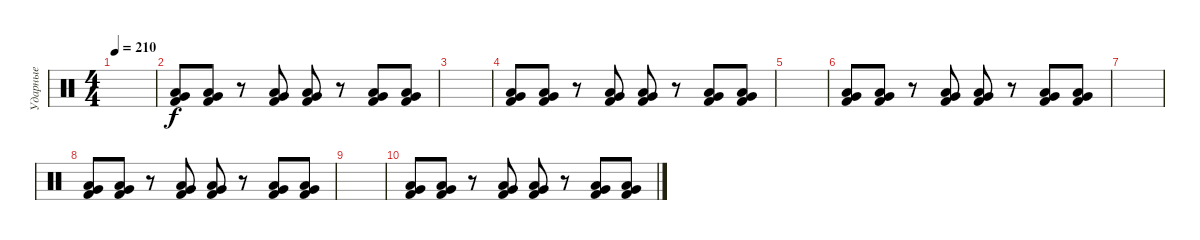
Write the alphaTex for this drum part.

\track ("Ударные" "Ударные") {instrument percussion}
\staff {score}
\articulation defaults
\ts (4 4)
\tempo 210
\clef neutral
\ks c
|
("Very Low Tom (hit)" "Low Floor Tom (hit)" "Kick (hit) 2").8 ("Very Low Tom (hit)" "Low Floor Tom (hit)" "Kick (hit) 2").8 r.8 ("Very Low Tom (hit)" "Low Floor Tom (hit)" "Kick (hit) 2").8 ("Very Low Tom (hit)" "Low Floor Tom (hit)" "Kick (hit) 2").8 r.8 ("Very Low Tom (hit)" "Low Floor Tom (hit)" "Kick (hit) 2").8 ("Very Low Tom (hit)" "Low Floor Tom (hit)" "Kick (hit) 2").8 |
|
("Very Low Tom (hit)" "Low Floor Tom (hit)" "Kick (hit) 2").8 ("Very Low Tom (hit)" "Low Floor Tom (hit)" "Kick (hit) 2").8 r.8 ("Very Low Tom (hit)" "Low Floor Tom (hit)" "Kick (hit) 2").8 ("Very Low Tom (hit)" "Low Floor Tom (hit)" "Kick (hit) 2").8 r.8 ("Very Low Tom (hit)" "Low Floor Tom (hit)" "Kick (hit) 2").8 ("Very Low Tom (hit)" "Low Floor Tom (hit)" "Kick (hit) 2").8 |
|
("Very Low Tom (hit)" "Low Floor Tom (hit)" "Kick (hit) 2").8 ("Very Low Tom (hit)" "Low Floor Tom (hit)" "Kick (hit) 2").8 r.8 ("Very Low Tom (hit)" "Low Floor Tom (hit)" "Kick (hit) 2").8 ("Very Low Tom (hit)" "Low Floor Tom (hit)" "Kick (hit) 2").8 r.8 ("Very Low Tom (hit)" "Low Floor Tom (hit)" "Kick (hit) 2").8 ("Very Low Tom (hit)" "Low Floor Tom (hit)" "Kick (hit) 2").8 |
|
("Very Low Tom (hit)" "Low Floor Tom (hit)" "Kick (hit) 2").8 ("Very Low Tom (hit)" "Low Floor Tom (hit)" "Kick (hit) 2").8 r.8 ("Very Low Tom (hit)" "Low Floor Tom (hit)" "Kick (hit) 2").8 ("Very Low Tom (hit)" "Low Floor Tom (hit)" "Kick (hit) 2").8 r.8 ("Very Low Tom (hit)" "Low Floor Tom (hit)" "Kick (hit) 2").8 ("Very Low Tom (hit)" "Low Floor Tom (hit)" "Kick (hit) 2").8 |
|
("Very Low Tom (hit)" "Low Floor Tom (hit)" "Kick (hit) 2").8 ("Very Low Tom (hit)" "Low Floor Tom (hit)" "Kick (hit) 2").8 r.8 ("Very Low Tom (hit)" "Low Floor Tom (hit)" "Kick (hit) 2").8 ("Very Low Tom (hit)" "Low Floor Tom (hit)" "Kick (hit) 2").8 r.8 ("Very Low Tom (hit)" "Low Floor Tom (hit)" "Kick (hit) 2").8 ("Very Low Tom (hit)" "Low Floor Tom (hit)" "Kick (hit) 2").8
